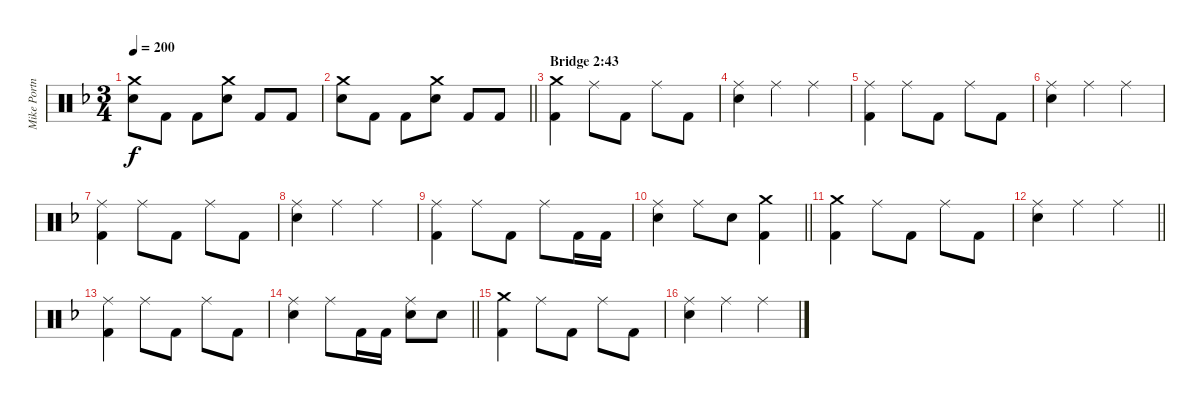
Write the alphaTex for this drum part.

\track ("Mike Portnoy (Drums)" "Mike Portn") {instrument percussion}
\staff {score}
\articulation defaults
\ts (3 4)
\tempo 200
\clef neutral
\ks f
("Crash medium (hit)" "Electric Snare (hit)").8{dy f} "Kick (hit) 2".8 "Kick (hit) 2".8 ("Crash medium (hit)" "Electric Snare (hit)").8 "Kick (hit) 2".8 "Kick (hit) 2".8 |
\barLineRight lightlight
("Crash medium (hit)" "Electric Snare (hit)").8 "Kick (hit) 2".8 "Kick (hit) 2".8 ("Crash medium (hit)" "Electric Snare (hit)").8 "Kick (hit) 2".8 "Kick (hit) 2".8 |
\section ("" "Bridge 2:43")
("Crash medium (hit)" "Kick (hit) 2").4 "Ride (middle)".8 "Kick (hit) 2".8 "Ride (middle)".8 "Kick (hit) 2".8 |
("Ride (middle)" "Electric Snare (hit)").4 "Ride (middle)".4 "Ride (middle)".4 |
("Ride (middle)" "Kick (hit) 2").4 "Ride (middle)".8 "Kick (hit) 2".8 "Ride (middle)".8 "Kick (hit) 2".8 |
("Ride (middle)" "Electric Snare (hit)").4 "Ride (middle)".4 "Ride (middle)".4 |
("Ride (middle)" "Kick (hit) 2").4 "Ride (middle)".8 "Kick (hit) 2".8 "Ride (middle)".8 "Kick (hit) 2".8 |
("Ride (middle)" "Electric Snare (hit)").4 "Ride (middle)".4 "Ride (middle)".4 |
("Ride (middle)" "Kick (hit) 2").4 "Ride (middle)".8 "Kick (hit) 2".8 "Ride (middle)".8 "Kick (hit) 2".16 "Kick (hit) 2".16 |
\barLineRight lightlight
("Ride (middle)" "Electric Snare (hit)").4 "Ride (middle)".8 "Electric Snare (hit)".8 ("Crash medium (hit)" "Kick (hit) 2").4 |
\section ("" "")
("Crash medium (hit)" "Kick (hit) 2").4 "Ride (middle)".8 "Kick (hit) 2".8 "Ride (middle)".8 "Kick (hit) 2".8 |
\barLineRight lightlight
("Ride (middle)" "Electric Snare (hit)").4 "Ride (middle)".4 "Ride (middle)".4 |
("Ride (middle)" "Kick (hit) 2").4 "Ride (middle)".8 "Kick (hit) 2".8 "Ride (middle)".8 "Kick (hit) 2".8 |
\barLineRight lightlight
("Ride (middle)" "Electric Snare (hit)").4 "Ride (middle)".8 "Kick (hit) 2".16 "Kick (hit) 2".16 ("Ride (middle)" "Electric Snare (hit)").8 "Electric Snare (hit)".8 |
("Crash medium (hit)" "Kick (hit) 2").4 "Ride (middle)".8 "Kick (hit) 2".8 "Ride (middle)".8 "Kick (hit) 2".8 |
("Ride (middle)" "Electric Snare (hit)").4 "Ride (middle)".4 "Ride (middle)".4
